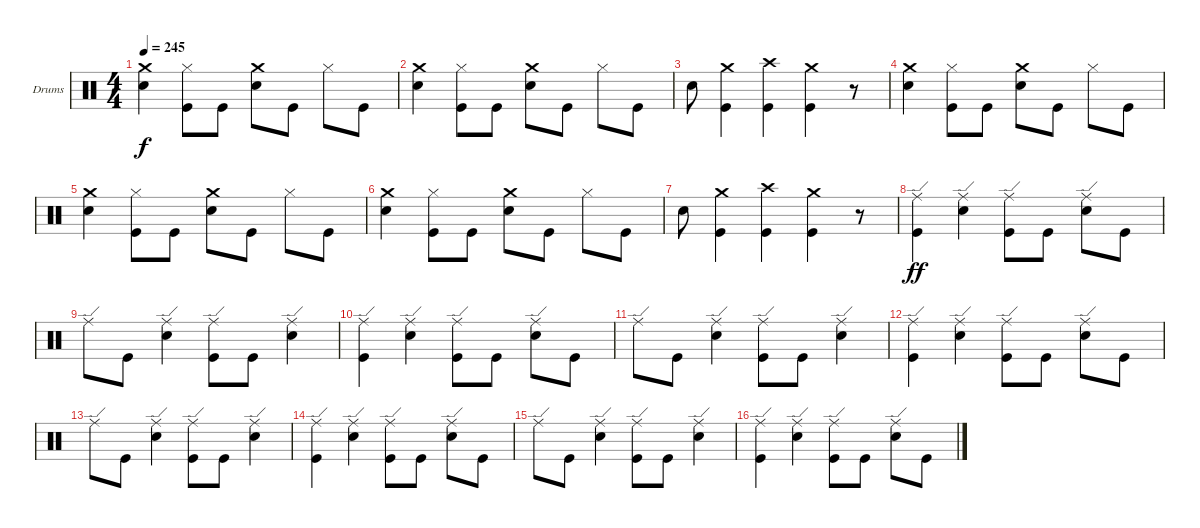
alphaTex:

\bracketExtendMode groupsimilarinstruments
\firstSystemTrackNameOrientation horizontal
\otherSystemsTrackNameOrientation horizontal
\track ("Drumkit" "Drums") {instrument percussion}
\staff {score}
\articulation defaults
\ts (4 4)
\tempo 245
\clef neutral
\ks c
("Snare (hit) 2" "Crash medium (hit)").4{dy f} ("Kick (hit)" "Hi-Hat (closed)").8 "Kick (hit)".8 ("Snare (hit) 2" "Crash medium (hit)").8 "Kick (hit)".8 "Hi-Hat (closed)".8 "Kick (hit)".8 |
("Snare (hit) 2" "Crash medium (hit)").4 ("Kick (hit)" "Hi-Hat (closed)").8 "Kick (hit)".8 ("Snare (hit) 2" "Crash medium (hit)").8 "Kick (hit)".8 "Hi-Hat (closed)".8 "Kick (hit)".8 |
"Snare (hit) 2".8 ("Kick (hit)" "Crash medium (hit)").4 ("Kick (hit)" "Crash high (hit)").4 ("Kick (hit)" "Crash medium (hit)").4 r.8 |
("Snare (hit) 2" "Crash medium (hit)").4 ("Kick (hit)" "Hi-Hat (closed)").8 "Kick (hit)".8 ("Snare (hit) 2" "Crash medium (hit)").8 "Kick (hit)".8 "Hi-Hat (closed)".8 "Kick (hit)".8 |
("Snare (hit) 2" "Crash medium (hit)").4 ("Kick (hit)" "Hi-Hat (closed)").8 "Kick (hit)".8 ("Snare (hit) 2" "Crash medium (hit)").8 "Kick (hit)".8 "Hi-Hat (closed)".8 "Kick (hit)".8 |
("Snare (hit) 2" "Crash medium (hit)").4 ("Kick (hit)" "Hi-Hat (closed)").8 "Kick (hit)".8 ("Snare (hit) 2" "Crash medium (hit)").8 "Kick (hit)".8 "Hi-Hat (closed)".8 "Kick (hit)".8 |
"Snare (hit) 2".8 ("Kick (hit)" "Crash medium (hit)").4 ("Kick (hit)" "Crash high (hit)").4 ("Kick (hit)" "Crash medium (hit)").4 r.8 |
("Kick (hit)" "Ride (edge)").4{dy ff} ("Snare (hit) 2" "Ride (edge)").4 ("Kick (hit)" "Ride (edge)").8 "Kick (hit)".8 ("Snare (hit) 2" "Ride (edge)").8 "Kick (hit)".8 |
"Ride (edge)".8 "Kick (hit)".8 ("Snare (hit) 2" "Ride (edge)").4 ("Kick (hit)" "Ride (edge)").8 "Kick (hit)".8 ("Snare (hit) 2" "Ride (edge)").4 |
("Kick (hit)" "Ride (edge)").4 ("Snare (hit) 2" "Ride (edge)").4 ("Kick (hit)" "Ride (edge)").8 "Kick (hit)".8 ("Snare (hit) 2" "Ride (edge)").8 "Kick (hit)".8 |
"Ride (edge)".8 "Kick (hit)".8 ("Snare (hit) 2" "Ride (edge)").4 ("Kick (hit)" "Ride (edge)").8 "Kick (hit)".8 ("Snare (hit) 2" "Ride (edge)").4 |
("Kick (hit)" "Ride (edge)").4 ("Snare (hit) 2" "Ride (edge)").4 ("Kick (hit)" "Ride (edge)").8 "Kick (hit)".8 ("Snare (hit) 2" "Ride (edge)").8 "Kick (hit)".8 |
"Ride (edge)".8 "Kick (hit)".8 ("Snare (hit) 2" "Ride (edge)").4 ("Kick (hit)" "Ride (edge)").8 "Kick (hit)".8 ("Snare (hit) 2" "Ride (edge)").4 |
("Kick (hit)" "Ride (edge)").4 ("Snare (hit) 2" "Ride (edge)").4 ("Kick (hit)" "Ride (edge)").8 "Kick (hit)".8 ("Snare (hit) 2" "Ride (edge)").8 "Kick (hit)".8 |
"Ride (edge)".8 "Kick (hit)".8 ("Snare (hit) 2" "Ride (edge)").4 ("Kick (hit)" "Ride (edge)").8 "Kick (hit)".8 ("Snare (hit) 2" "Ride (edge)").4 |
("Kick (hit)" "Ride (edge)").4 ("Snare (hit) 2" "Ride (edge)").4 ("Kick (hit)" "Ride (edge)").8 "Kick (hit)".8 ("Snare (hit) 2" "Ride (edge)").8 "Kick (hit)".8
